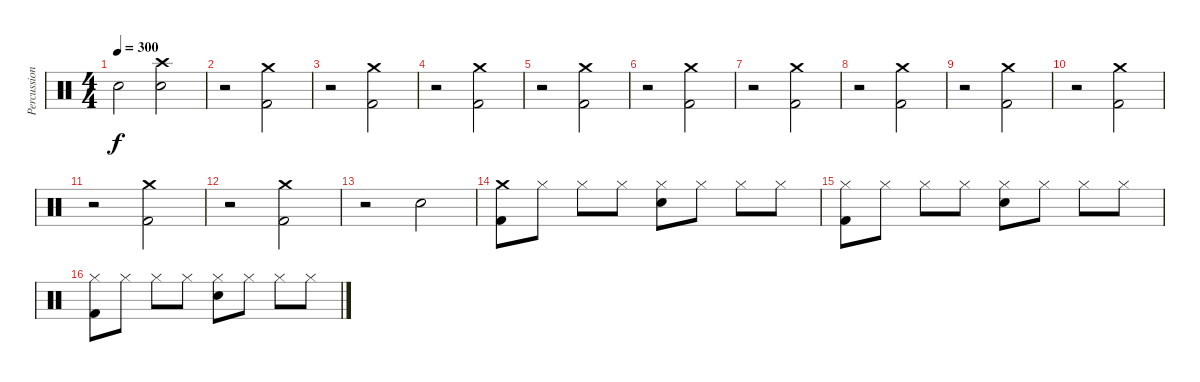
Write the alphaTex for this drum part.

\track ("Percussion" "Percussion") {instrument percussion}
\staff {score}
\articulation defaults
\ts (4 4)
\tempo 300
\clef neutral
\ks c "Snare (hit) 2".2{dy f}
("Crash high (hit)" "Snare (hit) 2").2 |
r.2 ("Crash medium (hit)" "Kick (hit) 2").2 |
r.2 ("Crash medium (hit)" "Kick (hit) 2").2 |
r.2 ("Crash medium (hit)" "Kick (hit) 2").2 |
r.2 ("Crash medium (hit)" "Kick (hit) 2").2 |
r.2 ("Crash medium (hit)" "Kick (hit) 2").2 |
r.2 ("Crash medium (hit)" "Kick (hit) 2").2 |
r.2 ("Crash medium (hit)" "Kick (hit) 2").2 |
r.2 ("Crash medium (hit)" "Kick (hit) 2").2 |
r.2 ("Crash medium (hit)" "Kick (hit) 2").2 |
r.2 ("Crash medium (hit)" "Kick (hit) 2").2 |
r.2 ("Crash medium (hit)" "Kick (hit) 2").2 |
r.2 "Snare (hit) 2".2 |
("Crash medium (hit)" "Kick (hit) 2").8 "Hi-Hat (closed)".8 "Hi-Hat (closed)".8 "Hi-Hat (closed)".8 ("Snare (hit) 2" "Hi-Hat (closed)").8 "Hi-Hat (closed)".8 "Hi-Hat (closed)".8 "Hi-Hat (closed)".8 |
("Kick (hit) 2" "Hi-Hat (closed)").8 "Hi-Hat (closed)".8 "Hi-Hat (closed)".8 "Hi-Hat (closed)".8 ("Snare (hit) 2" "Hi-Hat (closed)").8 "Hi-Hat (closed)".8 "Hi-Hat (closed)".8 "Hi-Hat (closed)".8 |
("Kick (hit) 2" "Hi-Hat (closed)").8 "Hi-Hat (closed)".8 "Hi-Hat (closed)".8 "Hi-Hat (closed)".8 ("Snare (hit) 2" "Hi-Hat (closed)").8 "Hi-Hat (closed)".8 "Hi-Hat (closed)".8 "Hi-Hat (closed)".8
